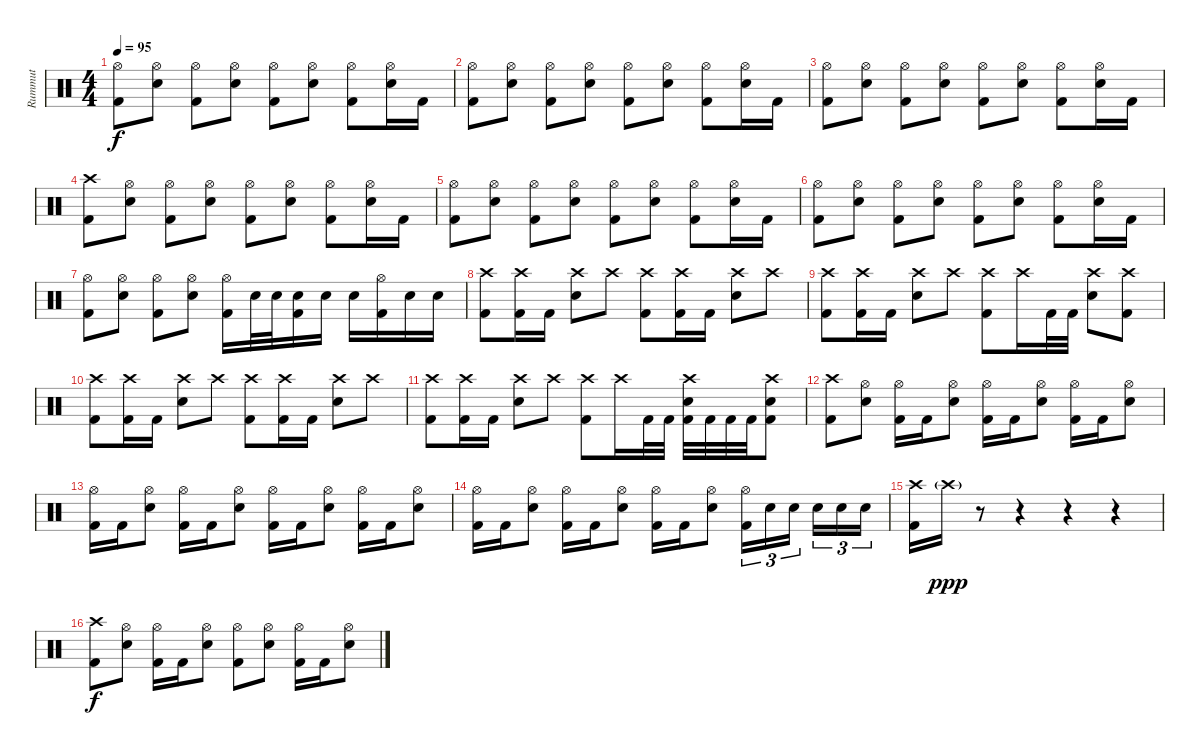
\track ("Rummut" "Rummut") {instrument percussion}
\staff {score}
\articulation defaults
\ts (4 4)
\tempo 95
\clef neutral
\ks c
("Hi-Hat (open)" "Kick (hit) 2").8{dy f} ("Hi-Hat (open)" "Snare (hit) 2").8 ("Hi-Hat (open)" "Kick (hit) 2").8 ("Hi-Hat (open)" "Snare (hit) 2").8 ("Hi-Hat (open)" "Kick (hit) 2").8 ("Hi-Hat (open)" "Snare (hit) 2").8 ("Hi-Hat (open)" "Kick (hit) 2").8 ("Hi-Hat (open)" "Snare (hit) 2").16 "Kick (hit) 2".16 |
("Hi-Hat (open)" "Kick (hit) 2").8 ("Hi-Hat (open)" "Snare (hit) 2").8 ("Hi-Hat (open)" "Kick (hit) 2").8 ("Hi-Hat (open)" "Snare (hit) 2").8 ("Hi-Hat (open)" "Kick (hit) 2").8 ("Hi-Hat (open)" "Snare (hit) 2").8 ("Hi-Hat (open)" "Kick (hit) 2").8 ("Hi-Hat (open)" "Snare (hit) 2").16 "Kick (hit) 2".16 |
("Hi-Hat (open)" "Kick (hit) 2").8 ("Hi-Hat (open)" "Snare (hit) 2").8 ("Hi-Hat (open)" "Kick (hit) 2").8 ("Hi-Hat (open)" "Snare (hit) 2").8 ("Hi-Hat (open)" "Kick (hit) 2").8 ("Hi-Hat (open)" "Snare (hit) 2").8 ("Hi-Hat (open)" "Kick (hit) 2").8 ("Hi-Hat (open)" "Snare (hit) 2").16 "Kick (hit) 2".16 |
("Crash high (hit)" "Kick (hit) 2").8 ("Hi-Hat (open)" "Snare (hit) 2").8 ("Hi-Hat (open)" "Kick (hit) 2").8 ("Hi-Hat (open)" "Snare (hit) 2").8 ("Hi-Hat (open)" "Kick (hit) 2").8 ("Hi-Hat (open)" "Snare (hit) 2").8 ("Hi-Hat (open)" "Kick (hit) 2").8 ("Hi-Hat (open)" "Snare (hit) 2").16 "Kick (hit) 2".16 |
("Hi-Hat (open)" "Kick (hit) 2").8 ("Hi-Hat (open)" "Snare (hit) 2").8 ("Hi-Hat (open)" "Kick (hit) 2").8 ("Hi-Hat (open)" "Snare (hit) 2").8 ("Hi-Hat (open)" "Kick (hit) 2").8 ("Hi-Hat (open)" "Snare (hit) 2").8 ("Hi-Hat (open)" "Kick (hit) 2").8 ("Hi-Hat (open)" "Snare (hit) 2").16 "Kick (hit) 2".16 |
("Hi-Hat (open)" "Kick (hit) 2").8 ("Hi-Hat (open)" "Snare (hit) 2").8 ("Hi-Hat (open)" "Kick (hit) 2").8 ("Hi-Hat (open)" "Snare (hit) 2").8 ("Hi-Hat (open)" "Kick (hit) 2").8 ("Hi-Hat (open)" "Snare (hit) 2").8 ("Hi-Hat (open)" "Kick (hit) 2").8 ("Hi-Hat (open)" "Snare (hit) 2").16 "Kick (hit) 2".16 |
("Hi-Hat (open)" "Kick (hit) 2").8 ("Hi-Hat (open)" "Snare (hit) 2").8 ("Hi-Hat (open)" "Kick (hit) 2").8 ("Hi-Hat (open)" "Snare (hit) 2").8 ("Hi-Hat (open)" "Kick (hit) 2").16 "Snare (hit) 2".32 "Snare (hit) 2".32 ("Snare (hit) 2" "Kick (hit) 2").16 "Snare (hit) 2".16 "Snare (hit) 2".16 ("Hi-Hat (open)" "Kick (hit) 2").16 "Snare (hit) 2".16 "Snare (hit) 2".16 |
("Crash high (hit)" "Kick (hit) 2").8 ("Crash high (hit)" "Kick (hit) 2").16 "Kick (hit) 2".16 ("Crash high (hit)" "Snare (hit) 2").8 "Crash high (hit)".8 ("Crash high (hit)" "Kick (hit) 2").8 ("Crash high (hit)" "Kick (hit) 2").16 "Kick (hit) 2".16 ("Crash high (hit)" "Snare (hit) 2").8 "Crash high (hit)".8 |
("Crash high (hit)" "Kick (hit) 2").8 ("Crash high (hit)" "Kick (hit) 2").16 "Kick (hit) 2".16 ("Crash high (hit)" "Snare (hit) 2").8 "Crash high (hit)".8 ("Crash high (hit)" "Kick (hit) 2").8 "Crash high (hit)".16 "Kick (hit) 2".32 "Kick (hit) 2".32 ("Crash high (hit)" "Snare (hit) 2").8 ("Crash high (hit)" "Kick (hit) 2").8 |
("Crash high (hit)" "Kick (hit) 2").8 ("Crash high (hit)" "Kick (hit) 2").16 "Kick (hit) 2".16 ("Crash high (hit)" "Snare (hit) 2").8 "Crash high (hit)".8 ("Crash high (hit)" "Kick (hit) 2").8 ("Crash high (hit)" "Kick (hit) 2").16 "Kick (hit) 2".16 ("Crash high (hit)" "Snare (hit) 2").8 "Crash high (hit)".8 |
("Crash high (hit)" "Kick (hit) 2").8 ("Crash high (hit)" "Kick (hit) 2").16 "Kick (hit) 2".16 ("Crash high (hit)" "Snare (hit) 2").8 "Crash high (hit)".8 ("Crash high (hit)" "Kick (hit) 2").8 "Crash high (hit)".16 "Kick (hit) 2".32 "Kick (hit) 2".32 ("Crash high (hit)" "Snare (hit) 2" "Kick (hit) 2").32 "Kick (hit) 2".32 "Kick (hit) 2".32 "Kick (hit) 2".32 ("Crash high (hit)" "Snare (hit) 2" "Kick (hit) 2").8 |
("Crash high (hit)" "Kick (hit) 2").8 ("Hi-Hat (open)" "Snare (hit) 2").8 ("Hi-Hat (open)" "Kick (hit) 2").16 "Kick (hit) 2".16 ("Hi-Hat (open)" "Snare (hit) 2").8 ("Hi-Hat (open)" "Kick (hit) 2").16 "Kick (hit) 2".16 ("Hi-Hat (open)" "Snare (hit) 2").8 ("Hi-Hat (open)" "Kick (hit) 2").16 "Kick (hit) 2".16 ("Hi-Hat (open)" "Snare (hit) 2").8 |
("Hi-Hat (open)" "Kick (hit) 2").16 "Kick (hit) 2".16 ("Hi-Hat (open)" "Snare (hit) 2").8 ("Hi-Hat (open)" "Kick (hit) 2").16 "Kick (hit) 2".16 ("Hi-Hat (open)" "Snare (hit) 2").8 ("Hi-Hat (open)" "Kick (hit) 2").16 "Kick (hit) 2".16 ("Hi-Hat (open)" "Snare (hit) 2").8 ("Hi-Hat (open)" "Kick (hit) 2").16 "Kick (hit) 2".16 ("Hi-Hat (open)" "Snare (hit) 2").8 |
("Hi-Hat (open)" "Kick (hit) 2").16 "Kick (hit) 2".16 ("Hi-Hat (open)" "Snare (hit) 2").8 ("Hi-Hat (open)" "Kick (hit) 2").16 "Kick (hit) 2".16 ("Hi-Hat (open)" "Snare (hit) 2").8 ("Hi-Hat (open)" "Kick (hit) 2").16 "Kick (hit) 2".16 ("Hi-Hat (open)" "Snare (hit) 2").8 ("Hi-Hat (open)" "Kick (hit) 2").16{tu (3 2)} "Snare (hit) 2".16{tu (3 2)} "Snare (hit) 2".16{tu (3 2) beam splitsecondary} "Snare (hit) 2".16{tu (3 2)} "Snare (hit) 2".16{tu (3 2)} "Snare (hit) 2".16{tu (3 2)} |
("Crash high (hit)" "Kick (hit) 2").16 "Crash high (hit)"{g}.16{dy ppp} r.8 r.4 r.4 r.4 |
("Crash high (hit)" "Kick (hit) 2").8{dy f} ("Hi-Hat (open)" "Snare (hit) 2").8 ("Hi-Hat (open)" "Kick (hit) 2").16 "Kick (hit) 2".16 ("Hi-Hat (open)" "Snare (hit) 2").8 ("Hi-Hat (open)" "Kick (hit) 2").8 ("Hi-Hat (open)" "Snare (hit) 2").8 ("Hi-Hat (open)" "Kick (hit) 2").16 "Kick (hit) 2".16 ("Hi-Hat (open)" "Snare (hit) 2").8
